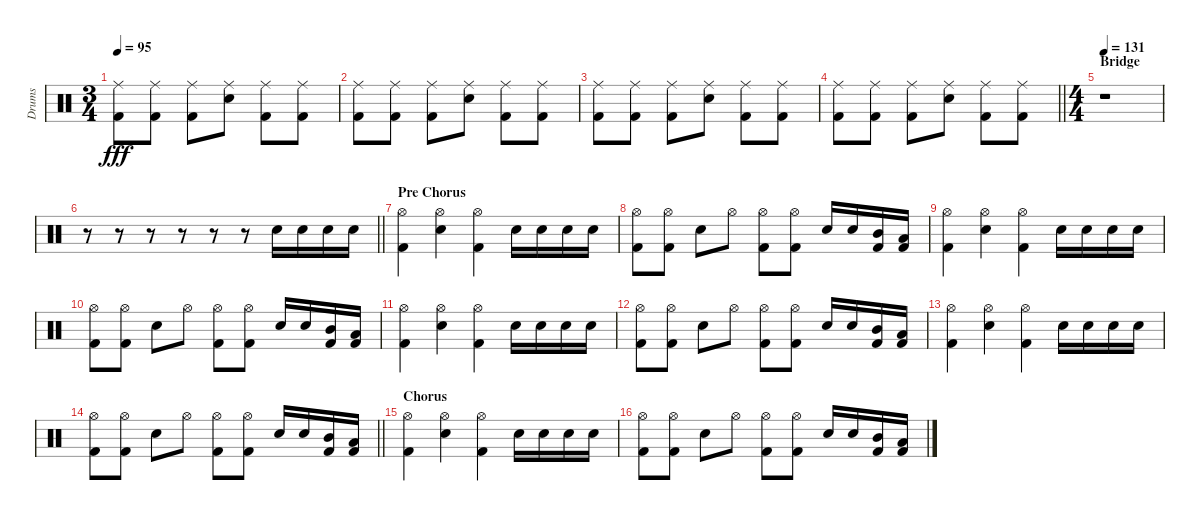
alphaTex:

\track ("Drums" "Drums") {instrument percussion}
\staff {score}
\articulation defaults
\ts (3 4)
\tempo 95
\clef neutral
\ks c
("Ride (middle)" "Kick (hit) 2").8{dy fff} ("Ride (middle)" "Kick (hit) 2").8 ("Ride (middle)" "Kick (hit) 2").8 ("Ride (middle)" "Electric Snare (hit)").8 ("Ride (middle)" "Kick (hit) 2").8 ("Ride (middle)" "Kick (hit) 2").8 |
("Ride (middle)" "Kick (hit) 2").8 ("Ride (middle)" "Kick (hit) 2").8 ("Ride (middle)" "Kick (hit) 2").8 ("Ride (middle)" "Electric Snare (hit)").8 ("Ride (middle)" "Kick (hit) 2").8 ("Ride (middle)" "Kick (hit) 2").8 |
("Ride (middle)" "Kick (hit) 2").8 ("Ride (middle)" "Kick (hit) 2").8 ("Ride (middle)" "Kick (hit) 2").8 ("Ride (middle)" "Electric Snare (hit)").8 ("Ride (middle)" "Kick (hit) 2").8 ("Ride (middle)" "Kick (hit) 2").8 |
\barLineRight lightlight
("Ride (middle)" "Kick (hit) 2").8 ("Ride (middle)" "Kick (hit) 2").8 ("Ride (middle)" "Kick (hit) 2").8 ("Ride (middle)" "Electric Snare (hit)").8 ("Ride (middle)" "Kick (hit) 2").8 ("Ride (middle)" "Kick (hit) 2").8 |
\ts (4 4)
\section ("" "Bridge")
\tempo 131
r.1 |
\barLineRight lightlight
r.8 r.8 r.8 r.8 r.8 r.8 "Electric Snare (hit)".16 "Electric Snare (hit)".16 "Electric Snare (hit)".16 "Electric Snare (hit)".16 |
\section ("" "Pre Chorus")
("Hi-Hat (open)" "Kick (hit) 2").4 ("Hi-Hat (open)" "Electric Snare (hit)").4 ("Hi-Hat (open)" "Kick (hit) 2").4 "Electric Snare (hit)".16 "Electric Snare (hit)".16 "Electric Snare (hit)".16 "Electric Snare (hit)".16 |
("Hi-Hat (open)" "Kick (hit) 2").8 ("Hi-Hat (open)" "Kick (hit) 2").8 "Electric Snare (hit)".8 "Hi-Hat (open)".8 ("Hi-Hat (open)" "Kick (hit) 2").8 ("Hi-Hat (open)" "Kick (hit) 2").8 "Electric Snare (hit)".16 "Electric Snare (hit)".16 ("Mid Tom (hit)" "Kick (hit) 2").16 ("Low Tom (hit)" "Kick (hit) 2").16 |
("Hi-Hat (open)" "Kick (hit) 2").4 ("Hi-Hat (open)" "Electric Snare (hit)").4 ("Hi-Hat (open)" "Kick (hit) 2").4 "Electric Snare (hit)".16 "Electric Snare (hit)".16 "Electric Snare (hit)".16 "Electric Snare (hit)".16 |
("Hi-Hat (open)" "Kick (hit) 2").8 ("Hi-Hat (open)" "Kick (hit) 2").8 "Electric Snare (hit)".8 "Hi-Hat (open)".8 ("Hi-Hat (open)" "Kick (hit) 2").8 ("Hi-Hat (open)" "Kick (hit) 2").8 "Electric Snare (hit)".16 "Electric Snare (hit)".16 ("Mid Tom (hit)" "Kick (hit) 2").16 ("Low Tom (hit)" "Kick (hit) 2").16 |
("Hi-Hat (open)" "Kick (hit) 2").4 ("Hi-Hat (open)" "Electric Snare (hit)").4 ("Hi-Hat (open)" "Kick (hit) 2").4 "Electric Snare (hit)".16 "Electric Snare (hit)".16 "Electric Snare (hit)".16 "Electric Snare (hit)".16 |
("Hi-Hat (open)" "Kick (hit) 2").8 ("Hi-Hat (open)" "Kick (hit) 2").8 "Electric Snare (hit)".8 "Hi-Hat (open)".8 ("Hi-Hat (open)" "Kick (hit) 2").8 ("Hi-Hat (open)" "Kick (hit) 2").8 "Electric Snare (hit)".16 "Electric Snare (hit)".16 ("Mid Tom (hit)" "Kick (hit) 2").16 ("Low Tom (hit)" "Kick (hit) 2").16 |
("Hi-Hat (open)" "Kick (hit) 2").4 ("Hi-Hat (open)" "Electric Snare (hit)").4 ("Hi-Hat (open)" "Kick (hit) 2").4 "Electric Snare (hit)".16 "Electric Snare (hit)".16 "Electric Snare (hit)".16 "Electric Snare (hit)".16 |
\barLineRight lightlight
("Hi-Hat (open)" "Kick (hit) 2").8 ("Hi-Hat (open)" "Kick (hit) 2").8 "Electric Snare (hit)".8 "Hi-Hat (open)".8 ("Hi-Hat (open)" "Kick (hit) 2").8 ("Hi-Hat (open)" "Kick (hit) 2").8 "Electric Snare (hit)".16 "Electric Snare (hit)".16 ("Mid Tom (hit)" "Kick (hit) 2").16 ("Low Tom (hit)" "Kick (hit) 2").16 |
\section ("" "Chorus")
("Hi-Hat (open)" "Kick (hit) 2").4 ("Hi-Hat (open)" "Electric Snare (hit)").4 ("Hi-Hat (open)" "Kick (hit) 2").4 "Electric Snare (hit)".16 "Electric Snare (hit)".16 "Electric Snare (hit)".16 "Electric Snare (hit)".16 |
("Hi-Hat (open)" "Kick (hit) 2").8 ("Hi-Hat (open)" "Kick (hit) 2").8 "Electric Snare (hit)".8 "Hi-Hat (open)".8 ("Hi-Hat (open)" "Kick (hit) 2").8 ("Hi-Hat (open)" "Kick (hit) 2").8 "Electric Snare (hit)".16 "Electric Snare (hit)".16 ("Mid Tom (hit)" "Kick (hit) 2").16 ("Low Tom (hit)" "Kick (hit) 2").16
